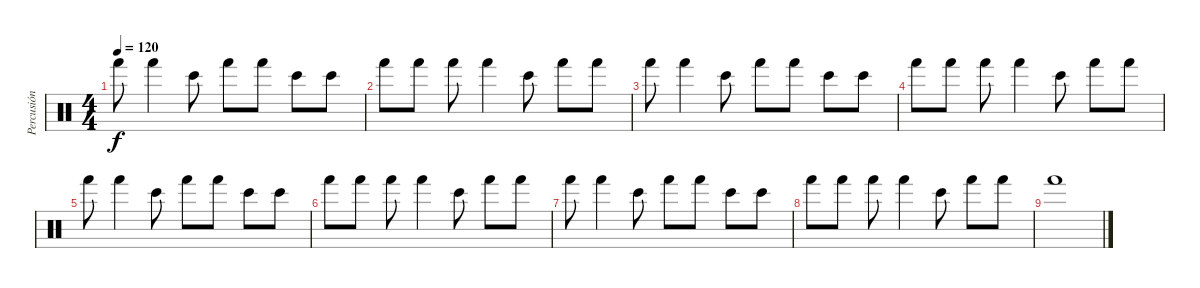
\track ("Percusión" "Percusión") {instrument percussion}
\staff
\articulation defaults
\ts (4 4)
\tempo 120
\clef neutral
\ks c "Hand (hit)".8{dy f} "Hand (hit)".4 "Bongo High (hit)".8 "Hand (hit)".8 "Hand (hit)".8 "Bongo High (hit)".8 "Bongo High (hit)".8
|
"Hand (hit)".8 "Hand (hit)".8 "Hand (hit)".8 "Hand (hit)".4 "Bongo High (hit)".8 "Hand (hit)".8 "Hand (hit)".8 |
"Hand (hit)".8 "Hand (hit)".4 "Bongo High (hit)".8 "Hand (hit)".8 "Hand (hit)".8 "Bongo High (hit)".8 "Bongo High (hit)".8 |
"Hand (hit)".8 "Hand (hit)".8 "Hand (hit)".8 "Hand (hit)".4 "Bongo High (hit)".8 "Hand (hit)".8 "Hand (hit)".8 |
"Hand (hit)".8 "Hand (hit)".4 "Bongo High (hit)".8 "Hand (hit)".8 "Hand (hit)".8 "Bongo High (hit)".8 "Bongo High (hit)".8 |
"Hand (hit)".8 "Hand (hit)".8 "Hand (hit)".8 "Hand (hit)".4 "Bongo High (hit)".8 "Hand (hit)".8 "Hand (hit)".8 |
"Hand (hit)".8 "Hand (hit)".4 "Bongo High (hit)".8 "Hand (hit)".8 "Hand (hit)".8 "Bongo High (hit)".8 "Bongo High (hit)".8 |
"Hand (hit)".8 "Hand (hit)".8 "Hand (hit)".8 "Hand (hit)".4 "Bongo High (hit)".8 "Hand (hit)".8 "Hand (hit)".8 |
"Hand (hit)".1
